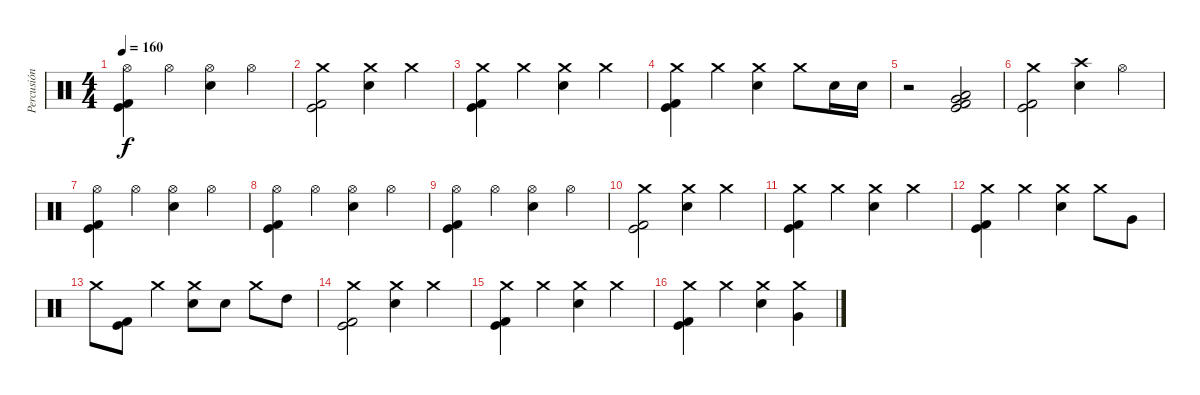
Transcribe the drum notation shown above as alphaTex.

\track ("Percusión" "Percusión") {instrument percussion}
\staff {score}
\articulation defaults
\ts (4 4)
\tempo 160
\clef neutral
\ks c
("Hi-Hat (open)" "Kick (hit)" "Kick (hit) 2").4{dy f} "Hi-Hat (open)".4 ("Hi-Hat (open)" "Electric Snare (hit)").4 "Hi-Hat (open)".4 |
("Crash medium (hit)" "Kick (hit)" "Kick (hit) 2").2 ("Crash medium (hit)" "Electric Snare (hit)").4 "Crash medium (hit)".4 |
("Crash medium (hit)" "Kick (hit)" "Kick (hit) 2").4 "Crash medium (hit)".4 ("Crash medium (hit)" "Electric Snare (hit)").4 "Crash medium (hit)".4 |
("Crash medium (hit)" "Kick (hit)" "Kick (hit) 2").4 "Crash medium (hit)".4 ("Crash medium (hit)" "Electric Snare (hit)").4 "Crash medium (hit)".8 "Electric Snare (hit)".16 "Electric Snare (hit)".16 |
r.2 ("Very Low Tom (hit)" "Low Tom (hit)" "Kick (hit)" "Kick (hit) 2").2 |
("Crash medium (hit)" "Kick (hit)" "Kick (hit) 2").2 ("Crash high (hit)" "Electric Snare (hit)").4 "Hi-Hat (open)".4 |
("Hi-Hat (open)" "Kick (hit)" "Kick (hit) 2").4 "Hi-Hat (open)".4 ("Hi-Hat (open)" "Electric Snare (hit)").4 "Hi-Hat (open)".4 |
("Hi-Hat (open)" "Kick (hit)" "Kick (hit) 2").4 "Hi-Hat (open)".4 ("Hi-Hat (open)" "Electric Snare (hit)").4 "Hi-Hat (open)".4 |
("Hi-Hat (open)" "Kick (hit)" "Kick (hit) 2").4 "Hi-Hat (open)".4 ("Hi-Hat (open)" "Electric Snare (hit)").4 "Hi-Hat (open)".4 |
("Crash medium (hit)" "Kick (hit)" "Kick (hit) 2").2 ("Crash medium (hit)" "Electric Snare (hit)").4 "Crash medium (hit)".4 |
("Crash medium (hit)" "Kick (hit)" "Kick (hit) 2").4 "Crash medium (hit)".4 ("Crash medium (hit)" "Electric Snare (hit)").4 "Crash medium (hit)".4 |
("Crash medium (hit)" "Kick (hit)" "Kick (hit) 2").4 "Crash medium (hit)".4 ("Crash medium (hit)" "Electric Snare (hit)").4 "Crash medium (hit)".8 "Very Low Tom (hit)".8 |
"Crash medium (hit)".8 ("Kick (hit)" "Kick (hit) 2").8 "Crash medium (hit)".4 ("Crash medium (hit)" "Electric Snare (hit)").8 "Electric Snare (hit)".8 "Crash medium (hit)".8 "High Tom (hit)".8 |
("Crash medium (hit)" "Kick (hit)" "Kick (hit) 2").2 ("Crash medium (hit)" "Electric Snare (hit)").4 "Crash medium (hit)".4 |
("Crash medium (hit)" "Kick (hit)" "Kick (hit) 2").4 "Crash medium (hit)".4 ("Crash medium (hit)" "Electric Snare (hit)").4 "Crash medium (hit)".4 |
("Crash medium (hit)" "Kick (hit)" "Kick (hit) 2").4 "Crash medium (hit)".4 ("Crash medium (hit)" "Electric Snare (hit)").4 ("Crash medium (hit)" "Very Low Tom (hit)").4
